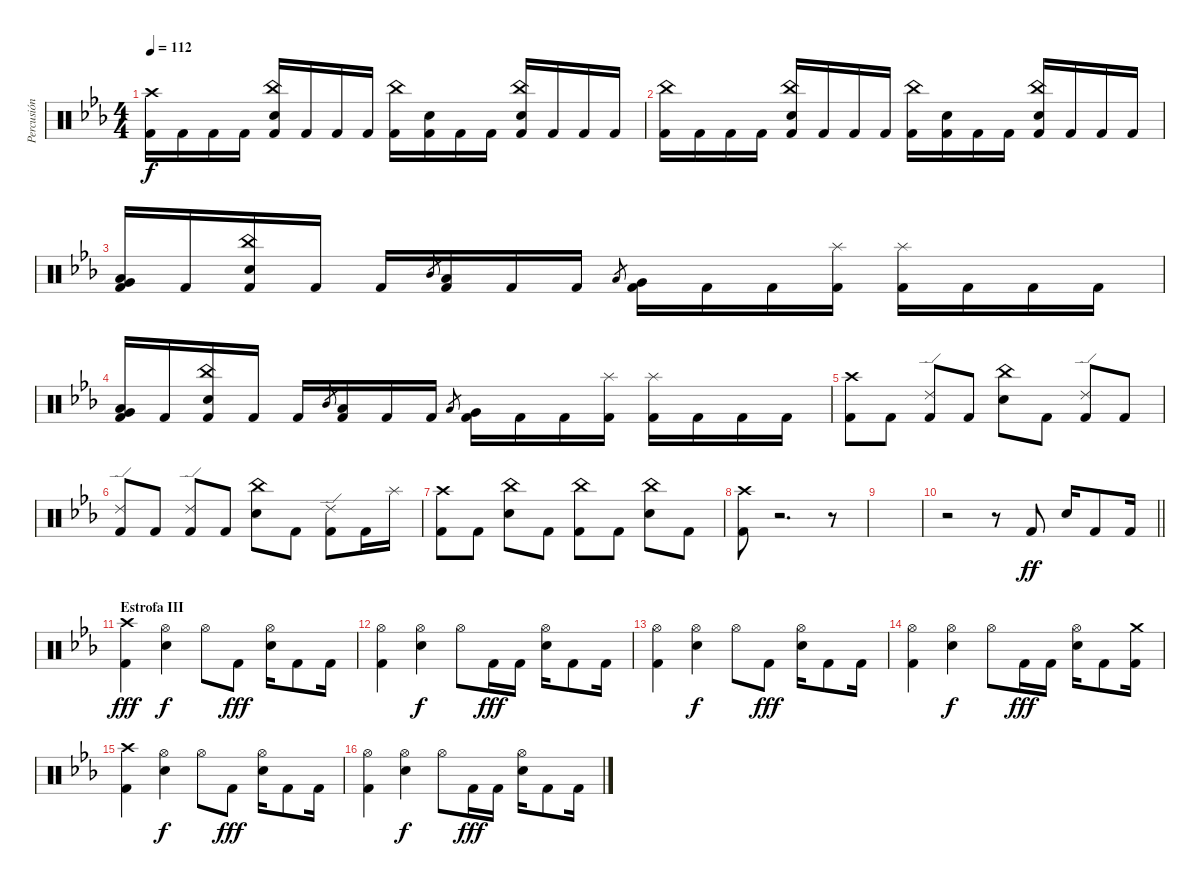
\track ("Percusión" "Percusión") {instrument percussion}
\staff {score}
\articulation defaults
\ts (4 4)
\tempo 112
\clef neutral
\ks cminor
("Crash high (hit)" "Kick (hit) 2").16{dy f} "Kick (hit) 2".16 "Kick (hit) 2".16 "Kick (hit) 2".16 ("China (hit)" "Snare (hit) 2" "Kick (hit) 2").16 "Kick (hit) 2".16 "Kick (hit) 2".16 "Kick (hit) 2".16 ("China (hit)" "Kick (hit) 2").16 ("Snare (hit) 2" "Kick (hit) 2").16 "Kick (hit) 2".16 "Kick (hit) 2".16 ("China (hit)" "Snare (hit) 2" "Kick (hit) 2").16 "Kick (hit) 2".16 "Kick (hit) 2".16 "Kick (hit) 2".16 |
("China (hit)" "Kick (hit) 2").16 "Kick (hit) 2".16 "Kick (hit) 2".16 "Kick (hit) 2".16 ("China (hit)" "Snare (hit) 2" "Kick (hit) 2").16 "Kick (hit) 2".16 "Kick (hit) 2".16 "Kick (hit) 2".16 ("China (hit)" "Kick (hit) 2").16 ("Snare (hit) 2" "Kick (hit) 2").16 "Kick (hit) 2".16 "Kick (hit) 2".16 ("China (hit)" "Snare (hit) 2" "Kick (hit) 2").16 "Kick (hit) 2".16 "Kick (hit) 2".16 "Kick (hit) 2".16 |
("Low Floor Tom (hit)" "Very Low Tom (hit)" "Kick (hit) 2").16 "Kick (hit) 2".16 ("China (hit)" "Snare (hit) 2" "Kick (hit) 2").16 "Kick (hit) 2".16 "Kick (hit) 2".16 "Mid Tom (hit)".8{gr} ("Low Tom (hit)" "Kick (hit) 2").16 "Kick (hit) 2".16 "Kick (hit) 2".16 "Low Tom (hit)".8{gr} ("Very Low Tom (hit)" "Kick (hit) 2").16 "Kick (hit) 2".16 "Kick (hit) 2".16 ("Splash (hit)" "Kick (hit) 2").16 ("Splash (hit)" "Kick (hit) 2").16 "Kick (hit) 2".16 "Kick (hit) 2".16 "Kick (hit) 2".16 |
("Low Floor Tom (hit)" "Very Low Tom (hit)" "Kick (hit) 2").16 "Kick (hit) 2".16 ("China (hit)" "Snare (hit) 2" "Kick (hit) 2").16 "Kick (hit) 2".16 "Kick (hit) 2".16 "Mid Tom (hit)".8{gr} ("Low Tom (hit)" "Kick (hit) 2").16 "Kick (hit) 2".16 "Kick (hit) 2".16 "Low Tom (hit)".8{gr} ("Very Low Tom (hit)" "Kick (hit) 2").16 "Kick (hit) 2".16 "Kick (hit) 2".16 ("Splash (hit)" "Kick (hit) 2").16 ("Splash (hit)" "Kick (hit) 2").16 "Kick (hit) 2".16 "Kick (hit) 2".16 "Kick (hit) 2".16 |
("Crash high (hit)" "Kick (hit) 2").8 "Kick (hit) 2".8 ("Ride (edge) 2" "Kick (hit) 2").8 "Kick (hit) 2".8 ("China (hit)" "Snare (hit) 2").8 "Kick (hit) 2".8 ("Ride (edge) 2" "Kick (hit) 2").8 "Kick (hit) 2".8 |
("Ride (edge) 2" "Kick (hit) 2").8 "Kick (hit) 2".8 ("Ride (edge) 2" "Kick (hit) 2").8 "Kick (hit) 2".8 ("China (hit)" "Snare (hit) 2").8 "Kick (hit) 2".8 ("Ride (edge) 2" "Kick (hit) 2").8 "Kick (hit) 2".16 "Splash (hit)".16 |
("Crash high (hit)" "Kick (hit) 2").8 "Kick (hit) 2".8 ("China (hit)" "Snare (hit) 2").8 "Kick (hit) 2".8 ("China (hit)" "Kick (hit) 2").8 "Kick (hit) 2".8 ("China (hit)" "Snare (hit) 2").8 "Kick (hit) 2".8 |
("Crash high (hit)" "Kick (hit) 2").8 r.2{d volume 0} r.8 |
|
\barLineRight lightlight
r.2 r.8 "Kick (hit) 2".8{dy ff volume 13} "Snare (hit) 2".16 "Kick (hit) 2".8 "Kick (hit) 2".16 |
\section ("" "Estrofa III")
("Crash high (hit)" "Kick (hit) 2").4{dy fff} ("Hi-Hat (open)" "Snare (hit) 2").4{dy f} "Hi-Hat (open)".8 "Kick (hit) 2".8{dy fff} ("Hi-Hat (open)" "Snare (hit) 2").16 "Kick (hit) 2".8 "Kick (hit) 2".16 |
("Hi-Hat (open)" "Kick (hit) 2").4 ("Hi-Hat (open)" "Snare (hit) 2").4{dy f} "Hi-Hat (open)".8 "Kick (hit) 2".16{dy fff} "Kick (hit) 2".16 ("Hi-Hat (open)" "Snare (hit) 2").16 "Kick (hit) 2".8 "Kick (hit) 2".16 |
("Hi-Hat (open)" "Kick (hit) 2").4 ("Hi-Hat (open)" "Snare (hit) 2").4{dy f} "Hi-Hat (open)".8 "Kick (hit) 2".8{dy fff} ("Hi-Hat (open)" "Snare (hit) 2").16 "Kick (hit) 2".8 "Kick (hit) 2".16 |
("Hi-Hat (open)" "Kick (hit) 2").4 ("Hi-Hat (open)" "Snare (hit) 2").4{dy f} "Hi-Hat (open)".8 "Kick (hit) 2".16{dy fff} "Kick (hit) 2".16 ("Hi-Hat (open)" "Snare (hit) 2").16 "Kick (hit) 2".8 ("Crash medium (hit)" "Kick (hit) 2").16 |
("Crash high (hit)" "Kick (hit) 2").4 ("Hi-Hat (open)" "Snare (hit) 2").4{dy f} "Hi-Hat (open)".8 "Kick (hit) 2".8{dy fff} ("Hi-Hat (open)" "Snare (hit) 2").16 "Kick (hit) 2".8 "Kick (hit) 2".16 |
("Hi-Hat (open)" "Kick (hit) 2").4 ("Hi-Hat (open)" "Snare (hit) 2").4{dy f} "Hi-Hat (open)".8 "Kick (hit) 2".16{dy fff} "Kick (hit) 2".16 ("Hi-Hat (open)" "Snare (hit) 2").16 "Kick (hit) 2".8 "Kick (hit) 2".16
